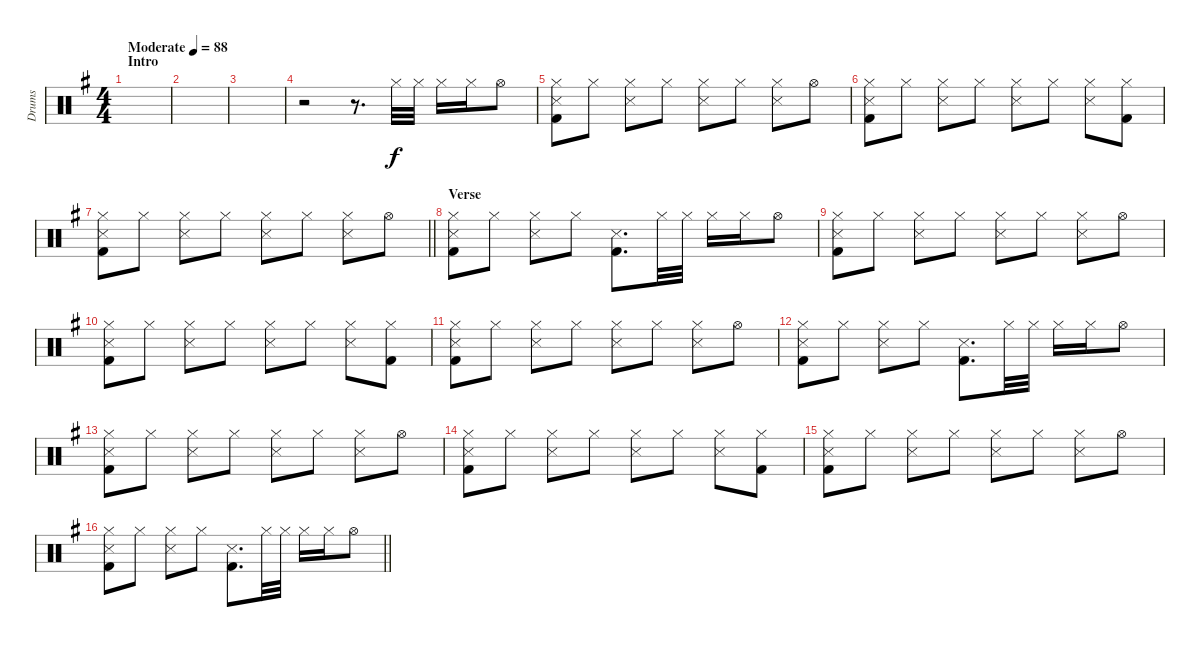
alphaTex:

\track ("Drums" "Drums") {instrument percussion}
\staff {score}
\articulation defaults
\ts (4 4)
\section ("" "Intro")
\tempo (88 "Moderate")
\clef neutral
\ks g
|
|
|
r.2 r.8{d} "Hi-Hat (closed)".32 "Hi-Hat (closed)".32 "Hi-Hat (closed)".16 "Hi-Hat (closed)".16 "Hi-Hat (open)".8 |
("Hi-Hat (closed)" "Snare (side stick) 3" "Kick (hit) 2").8 "Hi-Hat (closed)".8 ("Hi-Hat (closed)" "Snare (side stick) 3").8 "Hi-Hat (closed)".8 ("Hi-Hat (closed)" "Snare (side stick) 3").8 "Hi-Hat (closed)".8 ("Hi-Hat (closed)" "Snare (side stick) 3").8 "Hi-Hat (open)".8 |
("Hi-Hat (closed)" "Snare (side stick) 3" "Kick (hit) 2").8 "Hi-Hat (closed)".8 ("Hi-Hat (closed)" "Snare (side stick) 3").8 "Hi-Hat (closed)".8 ("Hi-Hat (closed)" "Snare (side stick) 3").8 "Hi-Hat (closed)".8 ("Hi-Hat (closed)" "Snare (side stick) 3").8 ("Hi-Hat (closed)" "Kick (hit) 2").8 |
\barLineRight lightlight
("Hi-Hat (closed)" "Snare (side stick) 3" "Kick (hit) 2").8 "Hi-Hat (closed)".8 ("Hi-Hat (closed)" "Snare (side stick) 3").8 "Hi-Hat (closed)".8 ("Hi-Hat (closed)" "Snare (side stick) 3").8 "Hi-Hat (closed)".8 ("Hi-Hat (closed)" "Snare (side stick) 3").8 "Hi-Hat (open)".8 |
\section ("" "Verse")
("Hi-Hat (closed)" "Snare (side stick) 3" "Kick (hit) 2").8 "Hi-Hat (closed)".8 ("Hi-Hat (closed)" "Snare (side stick) 3").8 "Hi-Hat (closed)".8 ("Snare (side stick) 3" "Kick (hit) 2").8{d} "Hi-Hat (closed)".32 "Hi-Hat (closed)".32 "Hi-Hat (closed)".16 "Hi-Hat (closed)".16 "Hi-Hat (open)".8 |
("Hi-Hat (closed)" "Snare (side stick) 3" "Kick (hit) 2").8 "Hi-Hat (closed)".8 ("Hi-Hat (closed)" "Snare (side stick) 3").8 "Hi-Hat (closed)".8 ("Hi-Hat (closed)" "Snare (side stick) 3").8 "Hi-Hat (closed)".8 ("Hi-Hat (closed)" "Snare (side stick) 3").8 "Hi-Hat (open)".8 |
("Hi-Hat (closed)" "Snare (side stick) 3" "Kick (hit) 2").8 "Hi-Hat (closed)".8 ("Hi-Hat (closed)" "Snare (side stick) 3").8 "Hi-Hat (closed)".8 ("Hi-Hat (closed)" "Snare (side stick) 3").8 "Hi-Hat (closed)".8 ("Hi-Hat (closed)" "Snare (side stick) 3").8 ("Hi-Hat (closed)" "Kick (hit) 2").8 |
("Hi-Hat (closed)" "Snare (side stick) 3" "Kick (hit) 2").8 "Hi-Hat (closed)".8 ("Hi-Hat (closed)" "Snare (side stick) 3").8 "Hi-Hat (closed)".8 ("Hi-Hat (closed)" "Snare (side stick) 3").8 "Hi-Hat (closed)".8 ("Hi-Hat (closed)" "Snare (side stick) 3").8 "Hi-Hat (open)".8 |
("Hi-Hat (closed)" "Snare (side stick) 3" "Kick (hit) 2").8 "Hi-Hat (closed)".8 ("Hi-Hat (closed)" "Snare (side stick) 3").8 "Hi-Hat (closed)".8 ("Snare (side stick) 3" "Kick (hit) 2").8{d} "Hi-Hat (closed)".32 "Hi-Hat (closed)".32 "Hi-Hat (closed)".16 "Hi-Hat (closed)".16 "Hi-Hat (open)".8 |
("Hi-Hat (closed)" "Snare (side stick) 3" "Kick (hit) 2").8 "Hi-Hat (closed)".8 ("Hi-Hat (closed)" "Snare (side stick) 3").8 "Hi-Hat (closed)".8 ("Hi-Hat (closed)" "Snare (side stick) 3").8 "Hi-Hat (closed)".8 ("Hi-Hat (closed)" "Snare (side stick) 3").8 "Hi-Hat (open)".8 |
("Hi-Hat (closed)" "Snare (side stick) 3" "Kick (hit) 2").8 "Hi-Hat (closed)".8 ("Hi-Hat (closed)" "Snare (side stick) 3").8 "Hi-Hat (closed)".8 ("Hi-Hat (closed)" "Snare (side stick) 3").8 "Hi-Hat (closed)".8 ("Hi-Hat (closed)" "Snare (side stick) 3").8 ("Hi-Hat (closed)" "Kick (hit) 2").8 |
("Hi-Hat (closed)" "Snare (side stick) 3" "Kick (hit) 2").8 "Hi-Hat (closed)".8 ("Hi-Hat (closed)" "Snare (side stick) 3").8 "Hi-Hat (closed)".8 ("Hi-Hat (closed)" "Snare (side stick) 3").8 "Hi-Hat (closed)".8 ("Hi-Hat (closed)" "Snare (side stick) 3").8 "Hi-Hat (open)".8 |
\barLineRight lightlight
("Hi-Hat (closed)" "Snare (side stick) 3" "Kick (hit) 2").8 "Hi-Hat (closed)".8 ("Hi-Hat (closed)" "Snare (side stick) 3").8 "Hi-Hat (closed)".8 ("Snare (side stick) 3" "Kick (hit) 2").8{d} "Hi-Hat (closed)".32 "Hi-Hat (closed)".32 "Hi-Hat (closed)".16 "Hi-Hat (closed)".16 "Hi-Hat (open)".8
